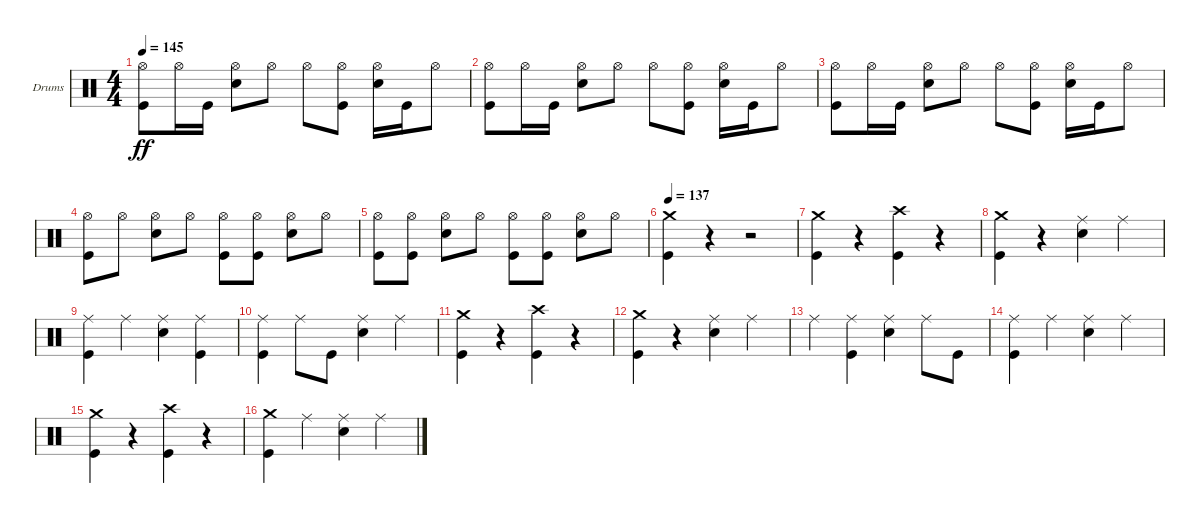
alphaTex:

\bracketExtendMode groupsimilarinstruments
\firstSystemTrackNameOrientation horizontal
\otherSystemsTrackNameOrientation horizontal
\track ("Drumkit" "Drums") {instrument percussion}
\staff {score}
\articulation defaults
\ts (4 4)
\tempo 145
\clef neutral
\ks c
("Hi-Hat (open)" "Kick (hit)").8{dy ff} "Hi-Hat (open)".16 "Kick (hit)".16 ("Hi-Hat (open)" "Snare (hit) 2").8 "Hi-Hat (open)".8 "Hi-Hat (open)".8 ("Hi-Hat (open)" "Kick (hit)").8 ("Hi-Hat (open)" "Snare (hit) 2").16 "Kick (hit)".16 "Hi-Hat (open)".8 |
("Hi-Hat (open)" "Kick (hit)").8 "Hi-Hat (open)".16 "Kick (hit)".16 ("Hi-Hat (open)" "Snare (hit) 2").8 "Hi-Hat (open)".8 "Hi-Hat (open)".8 ("Hi-Hat (open)" "Kick (hit)").8 ("Hi-Hat (open)" "Snare (hit) 2").16 "Kick (hit)".16 "Hi-Hat (open)".8 |
("Hi-Hat (open)" "Kick (hit)").8 "Hi-Hat (open)".16 "Kick (hit)".16 ("Hi-Hat (open)" "Snare (hit) 2").8 "Hi-Hat (open)".8 "Hi-Hat (open)".8 ("Hi-Hat (open)" "Kick (hit)").8 ("Hi-Hat (open)" "Snare (hit) 2").16 "Kick (hit)".16 "Hi-Hat (open)".8 |
("Hi-Hat (open)" "Kick (hit)").8 "Hi-Hat (open)".8 ("Hi-Hat (open)" "Snare (hit) 2").8 "Hi-Hat (open)".8 ("Hi-Hat (open)" "Kick (hit)").8 ("Hi-Hat (open)" "Kick (hit)").8 ("Hi-Hat (open)" "Snare (hit) 2").8 "Hi-Hat (open)".8 |
("Hi-Hat (open)" "Kick (hit)").8 ("Hi-Hat (open)" "Kick (hit)").8 ("Hi-Hat (open)" "Snare (hit) 2").8 "Hi-Hat (open)".8 ("Hi-Hat (open)" "Kick (hit)").8 ("Hi-Hat (open)" "Kick (hit)").8 ("Hi-Hat (open)" "Snare (hit) 2").8 "Hi-Hat (open)".8 |
\tempo 137
("Crash medium (hit)" "Kick (hit)").4 r.4 r.2 |
("Crash medium (hit)" "Kick (hit)").4 r.4 ("Crash high (hit)" "Kick (hit)").4 r.4 |
("Crash medium (hit)" "Kick (hit)").4 r.4 ("Ride (middle)" "Snare (hit) 2").4 "Ride (middle)".4 |
("Ride (middle)" "Kick (hit)").4 "Ride (middle)".4 ("Ride (middle)" "Snare (hit) 2").4 ("Ride (middle)" "Kick (hit)").4 |
("Ride (middle)" "Kick (hit)").4 "Ride (middle)".8 "Kick (hit)".8 ("Ride (middle)" "Snare (hit) 2").4 "Ride (middle)".4 |
("Crash medium (hit)" "Kick (hit)").4 r.4 ("Crash high (hit)" "Kick (hit)").4 r.4 |
("Crash medium (hit)" "Kick (hit)").4 r.4 ("Ride (middle)" "Snare (hit) 2").4 "Ride (middle)".4 |
"Ride (middle)".4 ("Ride (middle)" "Kick (hit)").4 ("Ride (middle)" "Snare (hit) 2").4 "Ride (middle)".8 "Kick (hit)".8 |
("Ride (middle)" "Kick (hit)").4 "Ride (middle)".4 ("Ride (middle)" "Snare (hit) 2").4 "Ride (middle)".4 |
("Crash medium (hit)" "Kick (hit)").4 r.4 ("Crash high (hit)" "Kick (hit)").4 r.4 |
("Crash medium (hit)" "Kick (hit)").4 "Ride (middle)".4 ("Ride (middle)" "Snare (hit) 2").4 "Ride (middle)".4
